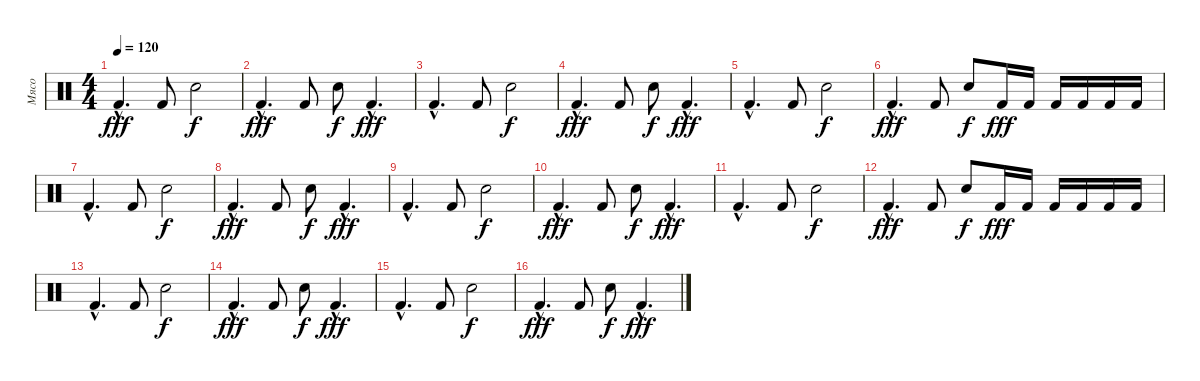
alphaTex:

\track ("Мясо" "Мясо") {instrument percussion}
\staff {score}
\articulation defaults
\ts (4 4)
\tempo 120
\clef neutral
\ks c "Kick (hit) 2"{hac}.4{d dy fff} "Kick (hit) 2".8 "Snare (hit) 2".2{dy f}
|
"Kick (hit) 2"{hac}.4{d dy fff} "Kick (hit) 2".8 "Snare (hit) 2".8{dy f} "Kick (hit) 2"{hac}.4{d dy fff} |
"Kick (hit) 2"{hac}.4{d} "Kick (hit) 2".8 "Snare (hit) 2".2{dy f} |
"Kick (hit) 2"{hac}.4{d dy fff} "Kick (hit) 2".8 "Snare (hit) 2".8{dy f} "Kick (hit) 2"{hac}.4{d dy fff} |
"Kick (hit) 2"{hac}.4{d} "Kick (hit) 2".8 "Snare (hit) 2".2{dy f} |
"Kick (hit) 2"{hac}.4{d dy fff} "Kick (hit) 2".8 "Snare (hit) 2".8{dy f} "Kick (hit) 2".16{dy fff} "Kick (hit) 2".16 "Kick (hit) 2".16 "Kick (hit) 2".16 "Kick (hit) 2".16 "Kick (hit) 2".16 |
"Kick (hit) 2"{hac}.4{d} "Kick (hit) 2".8 "Snare (hit) 2".2{dy f} |
"Kick (hit) 2"{hac}.4{d dy fff} "Kick (hit) 2".8 "Snare (hit) 2".8{dy f} "Kick (hit) 2"{hac}.4{d dy fff} |
"Kick (hit) 2"{hac}.4{d} "Kick (hit) 2".8 "Snare (hit) 2".2{dy f} |
"Kick (hit) 2"{hac}.4{d dy fff} "Kick (hit) 2".8 "Snare (hit) 2".8{dy f} "Kick (hit) 2"{hac}.4{d dy fff} |
"Kick (hit) 2"{hac}.4{d} "Kick (hit) 2".8 "Snare (hit) 2".2{dy f} |
"Kick (hit) 2"{hac}.4{d dy fff} "Kick (hit) 2".8 "Snare (hit) 2".8{dy f} "Kick (hit) 2".16{dy fff} "Kick (hit) 2".16 "Kick (hit) 2".16 "Kick (hit) 2".16 "Kick (hit) 2".16 "Kick (hit) 2".16 |
"Kick (hit) 2"{hac}.4{d} "Kick (hit) 2".8 "Snare (hit) 2".2{dy f} |
"Kick (hit) 2"{hac}.4{d dy fff} "Kick (hit) 2".8 "Snare (hit) 2".8{dy f} "Kick (hit) 2"{hac}.4{d dy fff} |
"Kick (hit) 2"{hac}.4{d} "Kick (hit) 2".8 "Snare (hit) 2".2{dy f} |
"Kick (hit) 2"{hac}.4{d dy fff} "Kick (hit) 2".8 "Snare (hit) 2".8{dy f} "Kick (hit) 2"{hac}.4{d dy fff}
